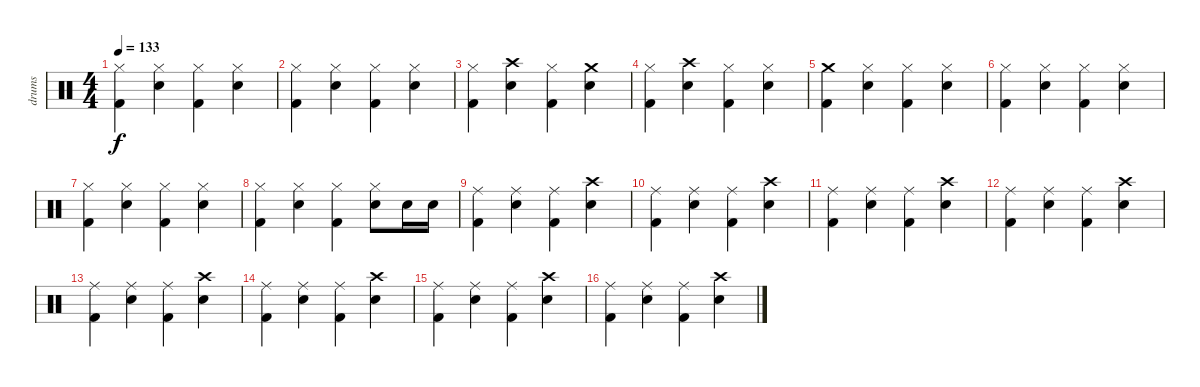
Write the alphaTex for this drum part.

\track ("drums" "drums") {instrument percussion}
\staff {score}
\articulation defaults
\ts (4 4)
\tempo 133
\clef neutral
\ks c
("Hi-Hat (closed)" "Kick (hit) 2").4{dy f} ("Hi-Hat (closed)" "Snare (hit) 2").4 ("Hi-Hat (closed)" "Kick (hit) 2").4 ("Hi-Hat (closed)" "Snare (hit) 2").4 |
("Hi-Hat (closed)" "Kick (hit) 2").4 ("Hi-Hat (closed)" "Snare (hit) 2").4 ("Hi-Hat (closed)" "Kick (hit) 2").4 ("Hi-Hat (closed)" "Snare (hit) 2").4 |
("Hi-Hat (closed)" "Kick (hit) 2").4 ("Crash high (hit)" "Snare (hit) 2").4 ("Hi-Hat (closed)" "Kick (hit) 2").4 ("Crash medium (hit)" "Snare (hit) 2").4 |
("Hi-Hat (closed)" "Kick (hit) 2").4 ("Crash high (hit)" "Snare (hit) 2").4 ("Hi-Hat (closed)" "Kick (hit) 2").4 ("Hi-Hat (closed)" "Snare (hit) 2").4 |
("Crash medium (hit)" "Kick (hit) 2").4 ("Hi-Hat (closed)" "Snare (hit) 2").4 ("Hi-Hat (closed)" "Kick (hit) 2").4 ("Hi-Hat (closed)" "Snare (hit) 2").4 |
("Hi-Hat (closed)" "Kick (hit) 2").4 ("Hi-Hat (closed)" "Snare (hit) 2").4 ("Hi-Hat (closed)" "Kick (hit) 2").4 ("Hi-Hat (closed)" "Snare (hit) 2").4 |
("Hi-Hat (closed)" "Kick (hit) 2").4 ("Hi-Hat (closed)" "Snare (hit) 2").4 ("Hi-Hat (closed)" "Kick (hit) 2").4 ("Hi-Hat (closed)" "Snare (hit) 2").4 |
("Hi-Hat (closed)" "Kick (hit) 2").4 ("Hi-Hat (closed)" "Snare (hit) 2").4 ("Hi-Hat (closed)" "Kick (hit) 2").4 ("Hi-Hat (closed)" "Snare (hit) 2").8 "Snare (hit) 2".16 "Snare (hit) 2".16 |
("Ride (middle)" "Kick (hit) 2").4 ("Ride (middle)" "Snare (hit) 2").4 ("Ride (middle)" "Kick (hit) 2").4 ("Crash high (hit)" "Snare (hit) 2").4 |
("Ride (middle)" "Kick (hit) 2").4 ("Ride (middle)" "Snare (hit) 2").4 ("Ride (middle)" "Kick (hit) 2").4 ("Crash high (hit)" "Snare (hit) 2").4 |
("Ride (middle)" "Kick (hit) 2").4 ("Ride (middle)" "Snare (hit) 2").4 ("Ride (middle)" "Kick (hit) 2").4 ("Crash high (hit)" "Snare (hit) 2").4 |
("Ride (middle)" "Kick (hit) 2").4 ("Ride (middle)" "Snare (hit) 2").4 ("Ride (middle)" "Kick (hit) 2").4 ("Crash high (hit)" "Snare (hit) 2").4 |
("Ride (middle)" "Kick (hit) 2").4 ("Ride (middle)" "Snare (hit) 2").4 ("Ride (middle)" "Kick (hit) 2").4 ("Crash high (hit)" "Snare (hit) 2").4 |
("Ride (middle)" "Kick (hit) 2").4 ("Ride (middle)" "Snare (hit) 2").4 ("Ride (middle)" "Kick (hit) 2").4 ("Crash high (hit)" "Snare (hit) 2").4 |
("Ride (middle)" "Kick (hit) 2").4 ("Ride (middle)" "Snare (hit) 2").4 ("Ride (middle)" "Kick (hit) 2").4 ("Crash high (hit)" "Snare (hit) 2").4 |
("Ride (middle)" "Kick (hit) 2").4 ("Ride (middle)" "Snare (hit) 2").4 ("Ride (middle)" "Kick (hit) 2").4 ("Crash high (hit)" "Snare (hit) 2").4
